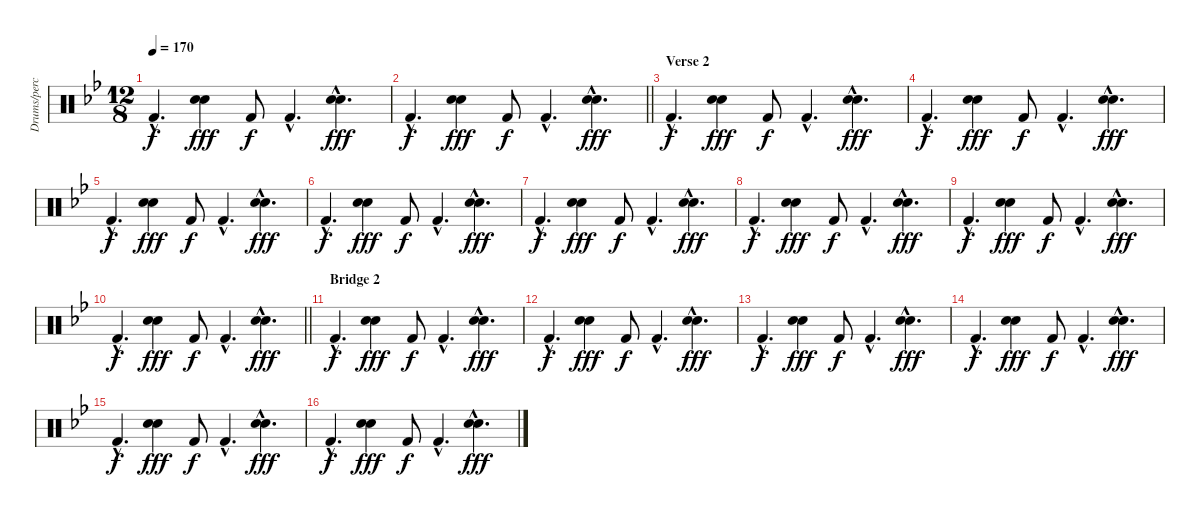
\track ("Drums/percussion" "Drums/perc") {instrument percussion}
\staff {score}
\articulation defaults
\ts (12 8)
\tempo 170
\clef neutral
\ks bb "Kick (hit) 2"{hac}.4{d dy f}
("Hand Clap (hit)" "Snare (hit) 2").4{dy fff} "Kick (hit) 2".8{dy f} "Kick (hit) 2"{hac}.4{d} ("Hand Clap (hit)"{hac} "Snare (hit) 2"{hac}).4{d dy fff} |
\barLineRight lightlight "Kick (hit) 2"{hac}.4{d dy f}
("Hand Clap (hit)" "Snare (hit) 2").4{dy fff} "Kick (hit) 2".8{dy f} "Kick (hit) 2"{hac}.4{d} ("Hand Clap (hit)"{hac} "Snare (hit) 2"{hac}).4{d dy fff} |
\section ("" "Verse 2")
"Kick (hit) 2"{hac}.4{d dy f} ("Hand Clap (hit)" "Snare (hit) 2").4{dy fff} "Kick (hit) 2".8{dy f} "Kick (hit) 2"{hac}.4{d} ("Hand Clap (hit)"{hac} "Snare (hit) 2"{hac}).4{d dy fff} |
"Kick (hit) 2"{hac}.4{d dy f} ("Hand Clap (hit)" "Snare (hit) 2").4{dy fff} "Kick (hit) 2".8{dy f} "Kick (hit) 2"{hac}.4{d} ("Hand Clap (hit)"{hac} "Snare (hit) 2"{hac}).4{d dy fff} |
"Kick (hit) 2"{hac}.4{d dy f} ("Hand Clap (hit)" "Snare (hit) 2").4{dy fff} "Kick (hit) 2".8{dy f} "Kick (hit) 2"{hac}.4{d} ("Hand Clap (hit)"{hac} "Snare (hit) 2"{hac}).4{d dy fff} |
"Kick (hit) 2"{hac}.4{d dy f} ("Hand Clap (hit)" "Snare (hit) 2").4{dy fff} "Kick (hit) 2".8{dy f} "Kick (hit) 2"{hac}.4{d} ("Hand Clap (hit)"{hac} "Snare (hit) 2"{hac}).4{d dy fff} |
"Kick (hit) 2"{hac}.4{d dy f} ("Hand Clap (hit)" "Snare (hit) 2").4{dy fff} "Kick (hit) 2".8{dy f} "Kick (hit) 2"{hac}.4{d} ("Hand Clap (hit)"{hac} "Snare (hit) 2"{hac}).4{d dy fff} |
"Kick (hit) 2"{hac}.4{d dy f} ("Hand Clap (hit)" "Snare (hit) 2").4{dy fff} "Kick (hit) 2".8{dy f} "Kick (hit) 2"{hac}.4{d} ("Hand Clap (hit)"{hac} "Snare (hit) 2"{hac}).4{d dy fff} |
"Kick (hit) 2"{hac}.4{d dy f} ("Hand Clap (hit)" "Snare (hit) 2").4{dy fff} "Kick (hit) 2".8{dy f} "Kick (hit) 2"{hac}.4{d} ("Hand Clap (hit)"{hac} "Snare (hit) 2"{hac}).4{d dy fff} |
\barLineRight lightlight "Kick (hit) 2"{hac}.4{d dy f}
("Hand Clap (hit)" "Snare (hit) 2").4{dy fff} "Kick (hit) 2".8{dy f} "Kick (hit) 2"{hac}.4{d} ("Hand Clap (hit)"{hac} "Snare (hit) 2"{hac}).4{d dy fff} |
\section ("" "Bridge 2")
"Kick (hit) 2"{hac}.4{d dy f} ("Hand Clap (hit)" "Snare (hit) 2").4{dy fff} "Kick (hit) 2".8{dy f} "Kick (hit) 2"{hac}.4{d} ("Hand Clap (hit)"{hac} "Snare (hit) 2"{hac}).4{d dy fff} |
"Kick (hit) 2"{hac}.4{d dy f} ("Hand Clap (hit)" "Snare (hit) 2").4{dy fff} "Kick (hit) 2".8{dy f} "Kick (hit) 2"{hac}.4{d} ("Hand Clap (hit)"{hac} "Snare (hit) 2"{hac}).4{d dy fff} |
"Kick (hit) 2"{hac}.4{d dy f} ("Hand Clap (hit)" "Snare (hit) 2").4{dy fff} "Kick (hit) 2".8{dy f} "Kick (hit) 2"{hac}.4{d} ("Hand Clap (hit)"{hac} "Snare (hit) 2"{hac}).4{d dy fff} |
"Kick (hit) 2"{hac}.4{d dy f} ("Hand Clap (hit)" "Snare (hit) 2").4{dy fff} "Kick (hit) 2".8{dy f} "Kick (hit) 2"{hac}.4{d} ("Hand Clap (hit)"{hac} "Snare (hit) 2"{hac}).4{d dy fff} |
"Kick (hit) 2"{hac}.4{d dy f} ("Hand Clap (hit)" "Snare (hit) 2").4{dy fff} "Kick (hit) 2".8{dy f} "Kick (hit) 2"{hac}.4{d} ("Hand Clap (hit)"{hac} "Snare (hit) 2"{hac}).4{d dy fff} |
"Kick (hit) 2"{hac}.4{d dy f} ("Hand Clap (hit)" "Snare (hit) 2").4{dy fff} "Kick (hit) 2".8{dy f} "Kick (hit) 2"{hac}.4{d} ("Hand Clap (hit)"{hac} "Snare (hit) 2"{hac}).4{d dy fff}
